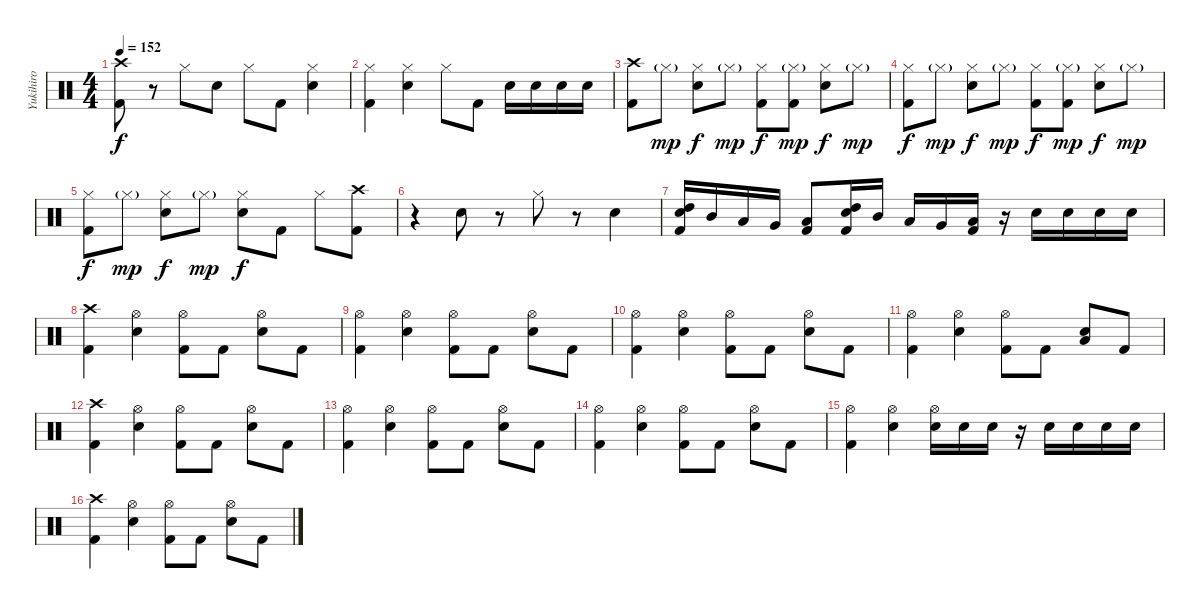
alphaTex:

\track ("Yukihiro" "Yukihiro") {instrument percussion}
\staff {score}
\articulation defaults
\ts (4 4)
\tempo 152
\clef neutral
\ks c
("Crash high (hit)" "Kick (hit) 2").8{dy f} r.8 "Hi-Hat (closed)".8 "Electric Snare (hit)".8 "Hi-Hat (closed)".8 "Kick (hit) 2".8 ("Hi-Hat (closed)" "Electric Snare (hit)").4 |
("Hi-Hat (closed)" "Kick (hit) 2").4 ("Hi-Hat (closed)" "Electric Snare (hit)").4 "Hi-Hat (closed)".8 "Kick (hit) 2".8 "Electric Snare (hit)".16 "Electric Snare (hit)".16 "Electric Snare (hit)".16 "Electric Snare (hit)".16 |
("Crash high (hit)" "Kick (hit) 2").8 "Hi-Hat (closed)"{g}.8{dy mp} ("Hi-Hat (closed)" "Electric Snare (hit)").8{dy f} "Hi-Hat (closed)"{g}.8{dy mp} ("Hi-Hat (closed)" "Kick (hit) 2").8{dy f} ("Hi-Hat (closed)"{g} "Kick (hit) 2").8{dy mp} ("Hi-Hat (closed)" "Electric Snare (hit)").8{dy f} "Hi-Hat (closed)"{g}.8{dy mp} |
("Hi-Hat (closed)" "Kick (hit) 2").8{dy f} "Hi-Hat (closed)"{g}.8{dy mp} ("Hi-Hat (closed)" "Electric Snare (hit)").8{dy f} "Hi-Hat (closed)"{g}.8{dy mp} ("Hi-Hat (closed)" "Kick (hit) 2").8{dy f} ("Hi-Hat (closed)"{g} "Kick (hit) 2").8{dy mp} ("Hi-Hat (closed)" "Electric Snare (hit)").8{dy f} "Hi-Hat (closed)"{g}.8{dy mp} |
("Hi-Hat (closed)" "Kick (hit) 2").8{dy f} "Hi-Hat (closed)"{g}.8{dy mp} ("Hi-Hat (closed)" "Electric Snare (hit)").8{dy f} "Hi-Hat (closed)"{g}.8{dy mp} ("Hi-Hat (closed)" "Electric Snare (hit)").8{dy f} "Kick (hit) 2".8 "Hi-Hat (closed)".8 ("Crash high (hit)" "Kick (hit) 2").8 |
r.4 "Electric Snare (hit)".8 r.8 "Hi-Hat (closed)".8 r.8 "Electric Snare (hit)".4 |
("High Tom (hit)" "Electric Snare (hit)" "Kick (hit) 2").16 "Mid Tom (hit)".16 "Low Tom (hit)".16 "Very Low Tom (hit)".16 ("Low Floor Tom (hit)" "Kick (hit) 2").8 ("High Tom (hit)" "Electric Snare (hit)" "Kick (hit) 2").16 "Mid Tom (hit)".16 "Low Tom (hit)".16 "Very Low Tom (hit)".16 ("Low Floor Tom (hit)" "Kick (hit) 2").16 r.16 "Electric Snare (hit)".16 "Electric Snare (hit)".16 "Electric Snare (hit)".16 "Electric Snare (hit)".16 |
("Crash high (hit)" "Kick (hit) 2").4 ("Hi-Hat (open)" "Electric Snare (hit)").4 ("Hi-Hat (open)" "Kick (hit) 2").8 "Kick (hit) 2".8 ("Hi-Hat (open)" "Electric Snare (hit)").8 "Kick (hit) 2".8 |
("Hi-Hat (open)" "Kick (hit) 2").4 ("Hi-Hat (open)" "Electric Snare (hit)").4 ("Hi-Hat (open)" "Kick (hit) 2").8 "Kick (hit) 2".8 ("Hi-Hat (open)" "Electric Snare (hit)").8 "Kick (hit) 2".8 |
("Hi-Hat (open)" "Kick (hit) 2").4 ("Hi-Hat (open)" "Electric Snare (hit)").4 ("Hi-Hat (open)" "Kick (hit) 2").8 "Kick (hit) 2".8 ("Hi-Hat (open)" "Electric Snare (hit)").8 "Kick (hit) 2".8 |
("Hi-Hat (open)" "Kick (hit) 2").4 ("Hi-Hat (open)" "Electric Snare (hit)").4 ("Hi-Hat (open)" "Kick (hit) 2").8 "Kick (hit) 2".8 ("Low Tom (hit)" "Electric Snare (hit)").8 "Kick (hit) 2".8 |
("Crash high (hit)" "Kick (hit) 2").4 ("Hi-Hat (open)" "Electric Snare (hit)").4 ("Hi-Hat (open)" "Kick (hit) 2").8 "Kick (hit) 2".8 ("Hi-Hat (open)" "Electric Snare (hit)").8 "Kick (hit) 2".8 |
("Hi-Hat (open)" "Kick (hit) 2").4 ("Hi-Hat (open)" "Electric Snare (hit)").4 ("Hi-Hat (open)" "Kick (hit) 2").8 "Kick (hit) 2".8 ("Hi-Hat (open)" "Electric Snare (hit)").8 "Kick (hit) 2".8 |
("Hi-Hat (open)" "Kick (hit) 2").4 ("Hi-Hat (open)" "Electric Snare (hit)").4 ("Hi-Hat (open)" "Kick (hit) 2").8 "Kick (hit) 2".8 ("Hi-Hat (open)" "Electric Snare (hit)").8 "Kick (hit) 2".8 |
("Hi-Hat (open)" "Kick (hit) 2").4 ("Hi-Hat (open)" "Electric Snare (hit)").4 ("Hi-Hat (open)" "Electric Snare (hit)").16 "Electric Snare (hit)".16 "Electric Snare (hit)".16 r.16 "Electric Snare (hit)".16 "Electric Snare (hit)".16 "Electric Snare (hit)".16 "Electric Snare (hit)".16 |
("Crash high (hit)" "Kick (hit) 2").4 ("Hi-Hat (open)" "Electric Snare (hit)").4 ("Hi-Hat (open)" "Kick (hit) 2").8 "Kick (hit) 2".8 ("Hi-Hat (open)" "Electric Snare (hit)").8 "Kick (hit) 2".8
